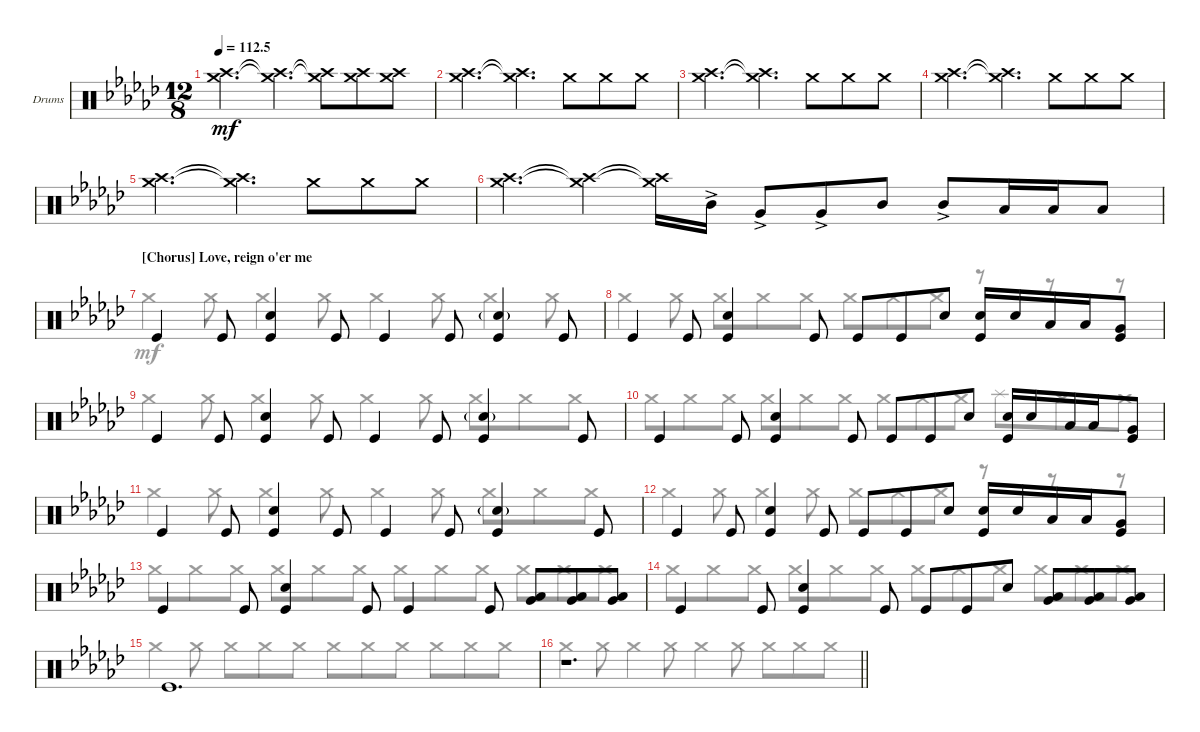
\bracketExtendMode groupsimilarinstruments
\firstSystemTrackNameOrientation horizontal
\otherSystemsTrackNameOrientation horizontal
\track ("Drumkit" "Drums") {instrument percussion}
\staff {score}
\articulation defaults
\voice
\ts (12 8)
\tempo
112.5
\accidentals auto
\clef neutral
\ottava regular
\simile none
\ks ebminor
("Crash medium (hit)" "Crash high (hit)").2{d dy mf} ("Crash medium (hit)"{t} "Crash high (hit)"{t}).4{d} ("Crash medium (hit)"{t} "Crash high (hit)"{t}).8 ("Crash medium (hit)" "Crash high (hit)").8 ("Crash medium (hit)" "Crash high (hit)").8 |
("Crash medium (hit)" "Crash high (hit)").2{d} ("Crash medium (hit)"{t} "Crash high (hit)"{t}).4{d} "Crash medium (hit)".8 "Crash medium (hit)".8 "Crash medium (hit)".8 |
("Crash medium (hit)" "Crash high (hit)").2{d} ("Crash medium (hit)"{t} "Crash high (hit)"{t}).4{d} "Crash medium (hit)".8 "Crash medium (hit)".8 "Crash medium (hit)".8 |
("Crash medium (hit)" "Crash high (hit)").2{d} ("Crash medium (hit)"{t} "Crash high (hit)"{t}).4{d} "Crash medium (hit)".8 "Crash medium (hit)".8 "Crash medium (hit)".8 |
("Crash medium (hit)" "Crash high (hit)").2{d} ("Crash medium (hit)"{t} "Crash high (hit)"{t}).4{d} "Crash medium (hit)".8 "Crash medium (hit)".8 "Crash medium (hit)".8 |
("Crash medium (hit)" "Crash high (hit)").4{d} ("Crash medium (hit)"{t} "Crash high (hit)"{t}).4 ("Crash medium (hit)"{t} "Crash high (hit)"{t}).16 "Mid Tom (hit)"{ac}.16 "Very Low Tom (hit)"{ac}.8 "Very Low Tom (hit)"{ac}.8 "Mid Tom (hit)".8 "Mid Tom (hit)"{ac}.8 "Low Tom (hit)".16 "Low Tom (hit)".16 "Low Tom (hit)".8 |
\section ("" "[Chorus] Love, reign o'er me")
"Kick (hit)".4 "Kick (hit)".8 ("Kick (hit)" "Snare (hit) 2").4 "Kick (hit)".8 "Kick (hit)".4 "Kick (hit)".8 ("Kick (hit)" "Snare (hit) 2"{g}).4 "Kick (hit)".8 |
"Kick (hit)".4 "Kick (hit)".8 ("Kick (hit)" "Snare (hit) 2").4 "Kick (hit)".8 "Kick (hit)".8 "Kick (hit)".8 "Snare (hit) 2".8 ("Snare (hit) 2" "Kick (hit)").16 "Snare (hit) 2".16 "Low Tom (hit)".16 "Low Tom (hit)".16 ("Very Low Tom (hit)" "Kick (hit)").8 |
"Kick (hit)".4 "Kick (hit)".8 ("Kick (hit)" "Snare (hit) 2").4 "Kick (hit)".8 "Kick (hit)".4 "Kick (hit)".8 ("Kick (hit)" "Snare (hit) 2"{g}).4 "Kick (hit)".8 |
"Kick (hit)".4 "Kick (hit)".8 ("Kick (hit)" "Snare (hit) 2").4 "Kick (hit)".8 "Kick (hit)".8 "Kick (hit)".8 "Snare (hit) 2".8 ("Snare (hit) 2" "Kick (hit)").16 "Snare (hit) 2".16 "Low Tom (hit)".16 "Low Tom (hit)".16 ("Very Low Tom (hit)" "Kick (hit)").8 |
"Kick (hit)".4 "Kick (hit)".8 ("Kick (hit)" "Snare (hit) 2").4 "Kick (hit)".8 "Kick (hit)".4 "Kick (hit)".8 ("Kick (hit)" "Snare (hit) 2"{g}).4 "Kick (hit)".8 |
"Kick (hit)".4 "Kick (hit)".8 ("Kick (hit)" "Snare (hit) 2").4 "Kick (hit)".8 "Kick (hit)".8 "Kick (hit)".8 "Snare (hit) 2".8 ("Snare (hit) 2" "Kick (hit)").16 "Snare (hit) 2".16 "Low Tom (hit)".16 "Low Tom (hit)".16 ("Very Low Tom (hit)" "Kick (hit)").8 |
"Kick (hit)".4 "Kick (hit)".8 ("Kick (hit)" "Snare (hit) 2").4 "Kick (hit)".8 "Kick (hit)".4 "Kick (hit)".8 ("Low Tom (hit)" "Very Low Tom (hit)").8 ("Low Tom (hit)" "Very Low Tom (hit)").8 ("Low Tom (hit)" "Very Low Tom (hit)").8 |
"Kick (hit)".4 "Kick (hit)".8 ("Kick (hit)" "Snare (hit) 2").4 "Kick (hit)".8 "Kick (hit)".8 "Kick (hit)".8 "Snare (hit) 2".8 ("Low Tom (hit)" "Very Low Tom (hit)").8 ("Low Tom (hit)" "Very Low Tom (hit)").8 ("Low Tom (hit)" "Very Low Tom (hit)").8 |
"Kick (hit)".1{d} |
\barLineRight lightlight
r.1{d}
\voice
\clef neutral
\ottava regular
\simile none
\ks ebminor
|
|
|
|
|
|
"Crash medium (hit)".4 "Crash medium (hit)".8 "Crash medium (hit)".4 "Crash medium (hit)".8 "Crash medium (hit)".4 "Crash medium (hit)".8 "Crash medium (hit)".4 "Crash medium (hit)".8 |
"Crash medium (hit)".4 "Crash medium (hit)".8 "Crash medium (hit)".8 "Crash medium (hit)".8 "Crash medium (hit)".8 "Crash medium (hit)".8 "Crash medium (hit)".8 "Crash medium (hit)".8 r.8 r.8 r.8 |
"Crash medium (hit)".4 "Crash medium (hit)".8 "Crash medium (hit)".4 "Crash medium (hit)".8 "Crash medium (hit)".4 "Crash medium (hit)".8 "Crash medium (hit)".8 "Crash medium (hit)".8 "Crash medium (hit)".8 |
"Crash medium (hit)".8 "Crash medium (hit)".8 "Crash medium (hit)".8 "Crash medium (hit)".8 "Crash medium (hit)".8 "Crash medium (hit)".8 "Crash medium (hit)".8 "Crash medium (hit)".8 "Crash medium (hit)".8 "Splash (hit)".8 "Crash medium (hit)".8 "Crash medium (hit)".8 |
"Crash medium (hit)".4 "Crash medium (hit)".8 "Crash medium (hit)".4 "Crash medium (hit)".8 "Crash medium (hit)".4 "Crash medium (hit)".8 "Crash medium (hit)".8 "Crash medium (hit)".8 "Crash medium (hit)".8 |
"Crash medium (hit)".4 "Crash medium (hit)".8 "Crash medium (hit)".4 "Crash medium (hit)".8 "Crash medium (hit)".8 "Crash medium (hit)".8 "Crash medium (hit)".8 r.8 r.8 r.8 |
"Crash medium (hit)".8 "Crash medium (hit)".8 "Crash medium (hit)".8 "Crash medium (hit)".8 "Crash medium (hit)".8 "Crash medium (hit)".8 "Crash medium (hit)".8 "Crash medium (hit)".8 "Crash medium (hit)".8 "Crash medium (hit)".8 "Crash medium (hit)".8 "Crash medium (hit)".8 |
"Crash medium (hit)".8 "Crash medium (hit)".8 "Crash medium (hit)".8 "Crash medium (hit)".8 "Crash medium (hit)".8 "Crash medium (hit)".8 "Crash medium (hit)".8 "Crash medium (hit)".8 "Crash medium (hit)".8 "Crash medium (hit)".8 "Crash medium (hit)".8 "Crash medium (hit)".8 |
"Crash medium (hit)".4 "Crash medium (hit)".8 "Crash medium (hit)".8 "Crash medium (hit)".8 "Crash medium (hit)".8 "Crash medium (hit)".8 "Crash medium (hit)".8 "Crash medium (hit)".8 "Crash medium (hit)".8 "Crash medium (hit)".8 "Crash medium (hit)".8 |
\barLineRight lightlight "Crash medium (hit)".4 "Crash medium (hit)".8 "Crash medium (hit)".4 "Crash medium (hit)".8 "Crash medium (hit)".4 "Crash medium (hit)".8 "Crash medium (hit)".8 "Crash medium (hit)".8 "Crash medium (hit)".8
